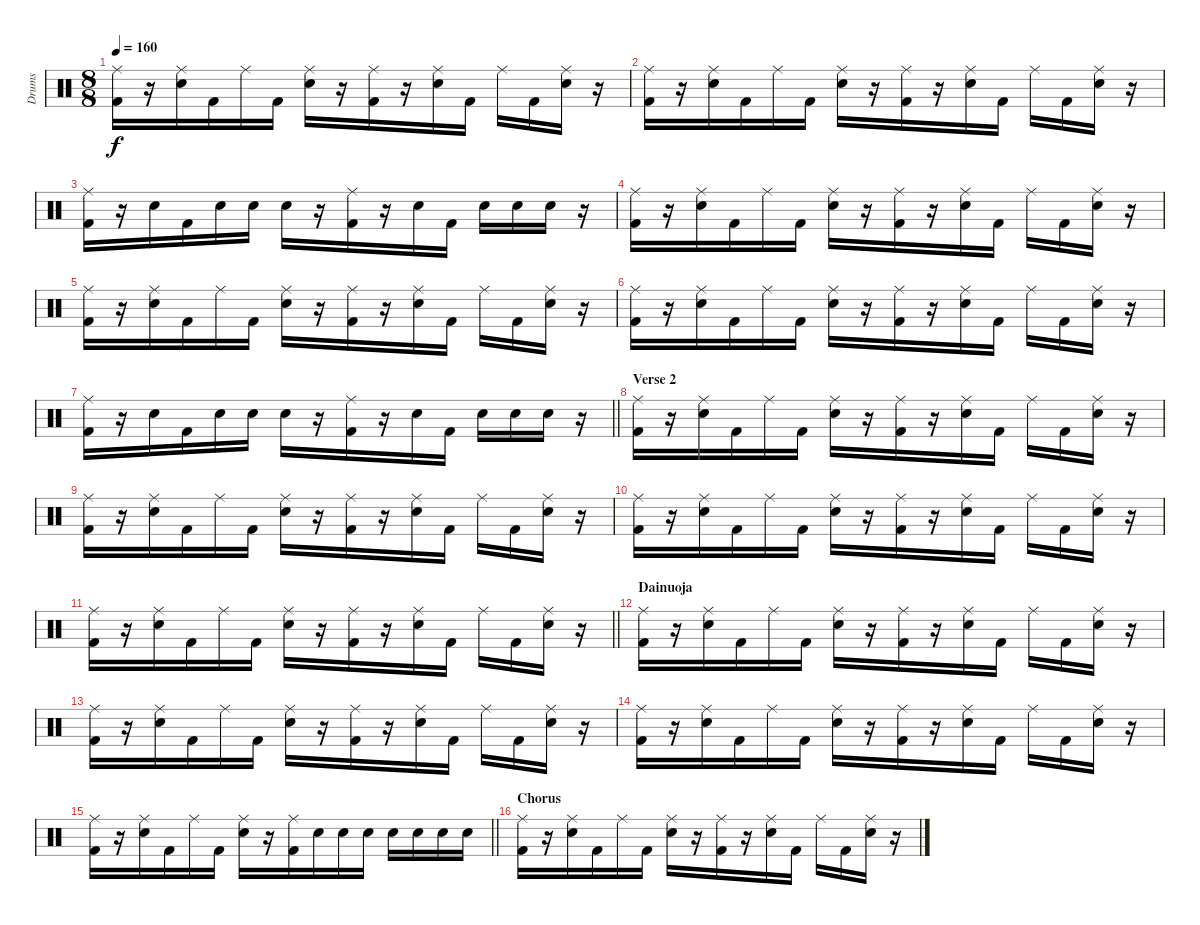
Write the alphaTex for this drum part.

\track ("Drums" "Drums") {instrument percussion}
\staff {score}
\articulation defaults
\ts (8 8)
\tempo 160
\clef neutral
\ks c
("Ride (middle)" "Kick (hit) 2").16{dy f} r.16 ("Ride (middle)" "Snare (hit) 2").16 "Kick (hit) 2".16 "Ride (middle)".16 "Kick (hit) 2".16 ("Ride (middle)" "Snare (hit) 2").16 r.16 ("Ride (middle)" "Kick (hit) 2").16 r.16 ("Ride (middle)" "Snare (hit) 2").16 "Kick (hit) 2".16 "Ride (middle)".16 "Kick (hit) 2".16 ("Ride (middle)" "Snare (hit) 2").16 r.16 |
("Ride (middle)" "Kick (hit) 2").16 r.16 ("Ride (middle)" "Snare (hit) 2").16 "Kick (hit) 2".16 "Ride (middle)".16 "Kick (hit) 2".16 ("Ride (middle)" "Snare (hit) 2").16 r.16 ("Ride (middle)" "Kick (hit) 2").16 r.16 ("Ride (middle)" "Snare (hit) 2").16 "Kick (hit) 2".16 "Ride (middle)".16 "Kick (hit) 2".16 ("Ride (middle)" "Snare (hit) 2").16 r.16 |
("Ride (middle)" "Kick (hit) 2").16 r.16 "Snare (hit) 2".16 "Kick (hit) 2".16 "Snare (hit) 2".16 "Snare (hit) 2".16 "Snare (hit) 2".16 r.16 ("Ride (middle)" "Kick (hit) 2").16 r.16 "Snare (hit) 2".16 "Kick (hit) 2".16 "Snare (hit) 2".16 "Snare (hit) 2".16 "Snare (hit) 2".16 r.16 |
("Ride (middle)" "Kick (hit) 2").16 r.16 ("Ride (middle)" "Snare (hit) 2").16 "Kick (hit) 2".16 "Ride (middle)".16 "Kick (hit) 2".16 ("Ride (middle)" "Snare (hit) 2").16 r.16 ("Ride (middle)" "Kick (hit) 2").16 r.16 ("Ride (middle)" "Snare (hit) 2").16 "Kick (hit) 2".16 "Ride (middle)".16 "Kick (hit) 2".16 ("Ride (middle)" "Snare (hit) 2").16 r.16 |
("Ride (middle)" "Kick (hit) 2").16 r.16 ("Ride (middle)" "Snare (hit) 2").16 "Kick (hit) 2".16 "Ride (middle)".16 "Kick (hit) 2".16 ("Ride (middle)" "Snare (hit) 2").16 r.16 ("Ride (middle)" "Kick (hit) 2").16 r.16 ("Ride (middle)" "Snare (hit) 2").16 "Kick (hit) 2".16 "Ride (middle)".16 "Kick (hit) 2".16 ("Ride (middle)" "Snare (hit) 2").16 r.16 |
("Ride (middle)" "Kick (hit) 2").16 r.16 ("Ride (middle)" "Snare (hit) 2").16 "Kick (hit) 2".16 "Ride (middle)".16 "Kick (hit) 2".16 ("Ride (middle)" "Snare (hit) 2").16 r.16 ("Ride (middle)" "Kick (hit) 2").16 r.16 ("Ride (middle)" "Snare (hit) 2").16 "Kick (hit) 2".16 "Ride (middle)".16 "Kick (hit) 2".16 ("Ride (middle)" "Snare (hit) 2").16 r.16 |
\barLineRight lightlight
("Ride (middle)" "Kick (hit) 2").16 r.16 "Snare (hit) 2".16 "Kick (hit) 2".16 "Snare (hit) 2".16 "Snare (hit) 2".16 "Snare (hit) 2".16 r.16 ("Ride (middle)" "Kick (hit) 2").16 r.16 "Snare (hit) 2".16 "Kick (hit) 2".16 "Snare (hit) 2".16 "Snare (hit) 2".16 "Snare (hit) 2".16 r.16 |
\section ("" "Verse 2")
("Ride (middle)" "Kick (hit) 2").16 r.16 ("Ride (middle)" "Snare (hit) 2").16 "Kick (hit) 2".16 "Ride (middle)".16 "Kick (hit) 2".16 ("Ride (middle)" "Snare (hit) 2").16 r.16 ("Ride (middle)" "Kick (hit) 2").16 r.16 ("Ride (middle)" "Snare (hit) 2").16 "Kick (hit) 2".16 "Ride (middle)".16 "Kick (hit) 2".16 ("Ride (middle)" "Snare (hit) 2").16 r.16 |
("Ride (middle)" "Kick (hit) 2").16 r.16 ("Ride (middle)" "Snare (hit) 2").16 "Kick (hit) 2".16 "Ride (middle)".16 "Kick (hit) 2".16 ("Ride (middle)" "Snare (hit) 2").16 r.16 ("Ride (middle)" "Kick (hit) 2").16 r.16 ("Ride (middle)" "Snare (hit) 2").16 "Kick (hit) 2".16 "Ride (middle)".16 "Kick (hit) 2".16 ("Ride (middle)" "Snare (hit) 2").16 r.16 |
("Ride (middle)" "Kick (hit) 2").16 r.16 ("Ride (middle)" "Snare (hit) 2").16 "Kick (hit) 2".16 "Ride (middle)".16 "Kick (hit) 2".16 ("Ride (middle)" "Snare (hit) 2").16 r.16 ("Ride (middle)" "Kick (hit) 2").16 r.16 ("Ride (middle)" "Snare (hit) 2").16 "Kick (hit) 2".16 "Ride (middle)".16 "Kick (hit) 2".16 ("Ride (middle)" "Snare (hit) 2").16 r.16 |
\barLineRight lightlight
("Ride (middle)" "Kick (hit) 2").16 r.16 ("Ride (middle)" "Snare (hit) 2").16 "Kick (hit) 2".16 "Ride (middle)".16 "Kick (hit) 2".16 ("Ride (middle)" "Snare (hit) 2").16 r.16 ("Ride (middle)" "Kick (hit) 2").16 r.16 ("Ride (middle)" "Snare (hit) 2").16 "Kick (hit) 2".16 "Ride (middle)".16 "Kick (hit) 2".16 ("Ride (middle)" "Snare (hit) 2").16 r.16 |
\section ("" "Dainuoja")
("Ride (middle)" "Kick (hit) 2").16 r.16 ("Ride (middle)" "Snare (hit) 2").16 "Kick (hit) 2".16 "Ride (middle)".16 "Kick (hit) 2".16 ("Ride (middle)" "Snare (hit) 2").16 r.16 ("Ride (middle)" "Kick (hit) 2").16 r.16 ("Ride (middle)" "Snare (hit) 2").16 "Kick (hit) 2".16 "Ride (middle)".16 "Kick (hit) 2".16 ("Ride (middle)" "Snare (hit) 2").16 r.16 |
("Ride (middle)" "Kick (hit) 2").16 r.16 ("Ride (middle)" "Snare (hit) 2").16 "Kick (hit) 2".16 "Ride (middle)".16 "Kick (hit) 2".16 ("Ride (middle)" "Snare (hit) 2").16 r.16 ("Ride (middle)" "Kick (hit) 2").16 r.16 ("Ride (middle)" "Snare (hit) 2").16 "Kick (hit) 2".16 "Ride (middle)".16 "Kick (hit) 2".16 ("Ride (middle)" "Snare (hit) 2").16 r.16 |
("Ride (middle)" "Kick (hit) 2").16 r.16 ("Ride (middle)" "Snare (hit) 2").16 "Kick (hit) 2".16 "Ride (middle)".16 "Kick (hit) 2".16 ("Ride (middle)" "Snare (hit) 2").16 r.16 ("Ride (middle)" "Kick (hit) 2").16 r.16 ("Ride (middle)" "Snare (hit) 2").16 "Kick (hit) 2".16 "Ride (middle)".16 "Kick (hit) 2".16 ("Ride (middle)" "Snare (hit) 2").16 r.16 |
\barLineRight lightlight
("Ride (middle)" "Kick (hit) 2").16 r.16 ("Ride (middle)" "Snare (hit) 2").16 "Kick (hit) 2".16 "Ride (middle)".16 "Kick (hit) 2".16 ("Ride (middle)" "Snare (hit) 2").16 r.16 ("Ride (middle)" "Kick (hit) 2").16 "Snare (hit) 2".16 "Snare (hit) 2".16 "Snare (hit) 2".16 "Snare (hit) 2".16 "Snare (hit) 2".16 "Snare (hit) 2".16 "Snare (hit) 2".16 |
\section ("" "Chorus")
("Ride (middle)" "Kick (hit) 2").16 r.16 ("Ride (middle)" "Snare (hit) 2").16 "Kick (hit) 2".16 "Ride (middle)".16 "Kick (hit) 2".16 ("Ride (middle)" "Snare (hit) 2").16 r.16 ("Ride (middle)" "Kick (hit) 2").16 r.16 ("Ride (middle)" "Snare (hit) 2").16 "Kick (hit) 2".16 "Ride (middle)".16 "Kick (hit) 2".16 ("Ride (middle)" "Snare (hit) 2").16 r.16
